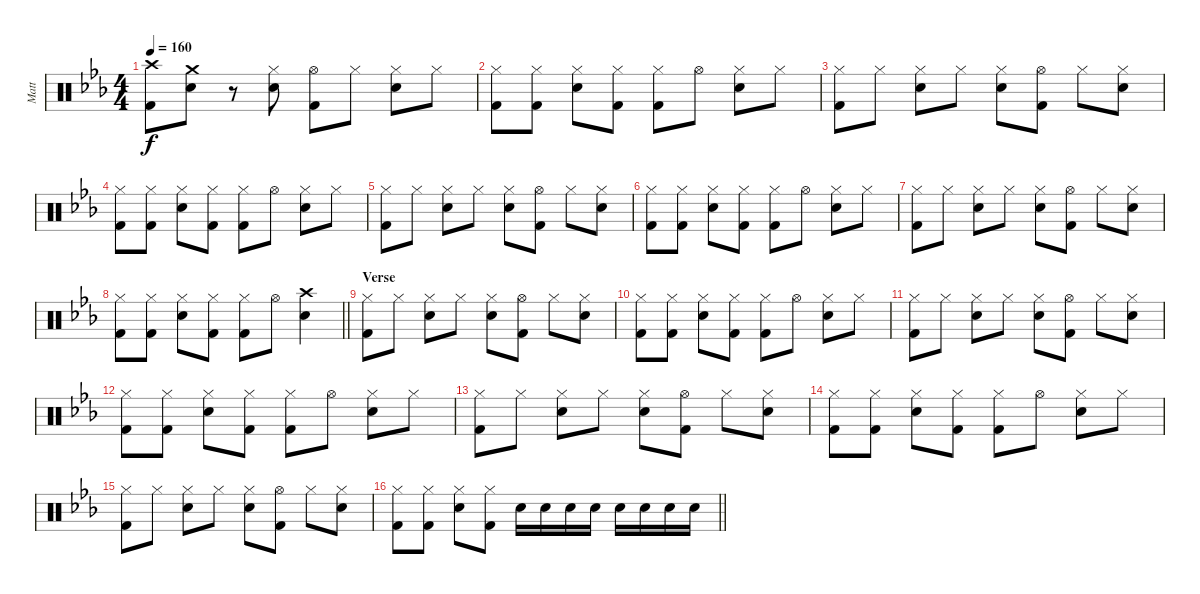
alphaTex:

\track ("Matt" "Matt") {instrument percussion}
\staff {score}
\articulation defaults
\ts (4 4)
\tempo 160
\clef neutral
\ks cminor
("Crash high (hit)" "Kick (hit) 2").8{dy f} ("Crash medium (hit)" "Electric Snare (hit)").8 r.8 ("Hi-Hat (closed)" "Electric Snare (hit)").8 ("Hi-Hat (open)" "Kick (hit) 2").8 "Hi-Hat (closed)".8 ("Hi-Hat (closed)" "Electric Snare (hit)").8 "Hi-Hat (closed)".8 |
("Hi-Hat (closed)" "Kick (hit) 2").8 ("Hi-Hat (closed)" "Kick (hit) 2").8 ("Hi-Hat (closed)" "Electric Snare (hit)").8 ("Hi-Hat (closed)" "Kick (hit) 2").8 ("Hi-Hat (closed)" "Kick (hit) 2").8 "Hi-Hat (open)".8 ("Hi-Hat (closed)" "Electric Snare (hit)").8 "Hi-Hat (closed)".8 |
("Hi-Hat (closed)" "Kick (hit) 2").8 "Hi-Hat (closed)".8 ("Hi-Hat (closed)" "Electric Snare (hit)").8 "Hi-Hat (closed)".8 ("Hi-Hat (closed)" "Electric Snare (hit)").8 ("Hi-Hat (open)" "Kick (hit) 2").8 "Hi-Hat (closed)".8 ("Hi-Hat (closed)" "Electric Snare (hit)").8 |
("Hi-Hat (closed)" "Kick (hit) 2").8 ("Hi-Hat (closed)" "Kick (hit) 2").8 ("Hi-Hat (closed)" "Electric Snare (hit)").8 ("Hi-Hat (closed)" "Kick (hit) 2").8 ("Hi-Hat (closed)" "Kick (hit) 2").8 "Hi-Hat (open)".8 ("Hi-Hat (closed)" "Electric Snare (hit)").8 "Hi-Hat (closed)".8 |
("Hi-Hat (closed)" "Kick (hit) 2").8 "Hi-Hat (closed)".8 ("Hi-Hat (closed)" "Electric Snare (hit)").8 "Hi-Hat (closed)".8 ("Hi-Hat (closed)" "Electric Snare (hit)").8 ("Hi-Hat (open)" "Kick (hit) 2").8 "Hi-Hat (closed)".8 ("Hi-Hat (closed)" "Electric Snare (hit)").8 |
("Hi-Hat (closed)" "Kick (hit) 2").8 ("Hi-Hat (closed)" "Kick (hit) 2").8 ("Hi-Hat (closed)" "Electric Snare (hit)").8 ("Hi-Hat (closed)" "Kick (hit) 2").8 ("Hi-Hat (closed)" "Kick (hit) 2").8 "Hi-Hat (open)".8 ("Hi-Hat (closed)" "Electric Snare (hit)").8 "Hi-Hat (closed)".8 |
("Hi-Hat (closed)" "Kick (hit) 2").8 "Hi-Hat (closed)".8 ("Hi-Hat (closed)" "Electric Snare (hit)").8 "Hi-Hat (closed)".8 ("Hi-Hat (closed)" "Electric Snare (hit)").8 ("Hi-Hat (open)" "Kick (hit) 2").8 "Hi-Hat (closed)".8 ("Hi-Hat (closed)" "Electric Snare (hit)").8 |
\barLineRight lightlight
("Hi-Hat (closed)" "Kick (hit) 2").8 ("Hi-Hat (closed)" "Kick (hit) 2").8 ("Hi-Hat (closed)" "Electric Snare (hit)").8 ("Hi-Hat (closed)" "Kick (hit) 2").8 ("Hi-Hat (closed)" "Kick (hit) 2").8 "Hi-Hat (open)".8 ("Crash high (hit)" "Electric Snare (hit)").4 |
\section ("" "Verse")
("Hi-Hat (closed)" "Kick (hit) 2").8 "Hi-Hat (closed)".8 ("Hi-Hat (closed)" "Electric Snare (hit)").8 "Hi-Hat (closed)".8 ("Hi-Hat (closed)" "Electric Snare (hit)").8 ("Hi-Hat (open)" "Kick (hit) 2").8 "Hi-Hat (closed)".8 ("Hi-Hat (closed)" "Electric Snare (hit)").8 |
("Hi-Hat (closed)" "Kick (hit) 2").8 ("Hi-Hat (closed)" "Kick (hit) 2").8 ("Hi-Hat (closed)" "Electric Snare (hit)").8 ("Hi-Hat (closed)" "Kick (hit) 2").8 ("Hi-Hat (closed)" "Kick (hit) 2").8 "Hi-Hat (open)".8 ("Hi-Hat (closed)" "Electric Snare (hit)").8 "Hi-Hat (closed)".8 |
("Hi-Hat (closed)" "Kick (hit) 2").8 "Hi-Hat (closed)".8 ("Hi-Hat (closed)" "Electric Snare (hit)").8 "Hi-Hat (closed)".8 ("Hi-Hat (closed)" "Electric Snare (hit)").8 ("Hi-Hat (open)" "Kick (hit) 2").8 "Hi-Hat (closed)".8 ("Hi-Hat (closed)" "Electric Snare (hit)").8 |
("Hi-Hat (closed)" "Kick (hit) 2").8 ("Hi-Hat (closed)" "Kick (hit) 2").8 ("Hi-Hat (closed)" "Electric Snare (hit)").8 ("Hi-Hat (closed)" "Kick (hit) 2").8 ("Hi-Hat (closed)" "Kick (hit) 2").8 "Hi-Hat (open)".8 ("Hi-Hat (closed)" "Electric Snare (hit)").8 "Hi-Hat (closed)".8 |
("Hi-Hat (closed)" "Kick (hit) 2").8 "Hi-Hat (closed)".8 ("Hi-Hat (closed)" "Electric Snare (hit)").8 "Hi-Hat (closed)".8 ("Hi-Hat (closed)" "Electric Snare (hit)").8 ("Hi-Hat (open)" "Kick (hit) 2").8 "Hi-Hat (closed)".8 ("Hi-Hat (closed)" "Electric Snare (hit)").8 |
("Hi-Hat (closed)" "Kick (hit) 2").8 ("Hi-Hat (closed)" "Kick (hit) 2").8 ("Hi-Hat (closed)" "Electric Snare (hit)").8 ("Hi-Hat (closed)" "Kick (hit) 2").8 ("Hi-Hat (closed)" "Kick (hit) 2").8 "Hi-Hat (open)".8 ("Hi-Hat (closed)" "Electric Snare (hit)").8 "Hi-Hat (closed)".8 |
("Hi-Hat (closed)" "Kick (hit) 2").8 "Hi-Hat (closed)".8 ("Hi-Hat (closed)" "Electric Snare (hit)").8 "Hi-Hat (closed)".8 ("Hi-Hat (closed)" "Electric Snare (hit)").8 ("Hi-Hat (open)" "Kick (hit) 2").8 "Hi-Hat (closed)".8 ("Hi-Hat (closed)" "Electric Snare (hit)").8 |
\barLineRight lightlight
("Hi-Hat (closed)" "Kick (hit) 2").8 ("Hi-Hat (closed)" "Kick (hit) 2").8 ("Hi-Hat (closed)" "Electric Snare (hit)").8 ("Hi-Hat (closed)" "Kick (hit) 2").8 "Electric Snare (hit)".16 "Electric Snare (hit)".16 "Electric Snare (hit)".16 "Electric Snare (hit)".16 "Electric Snare (hit)".16 "Electric Snare (hit)".16 "Electric Snare (hit)".16 "Electric Snare (hit)".16
